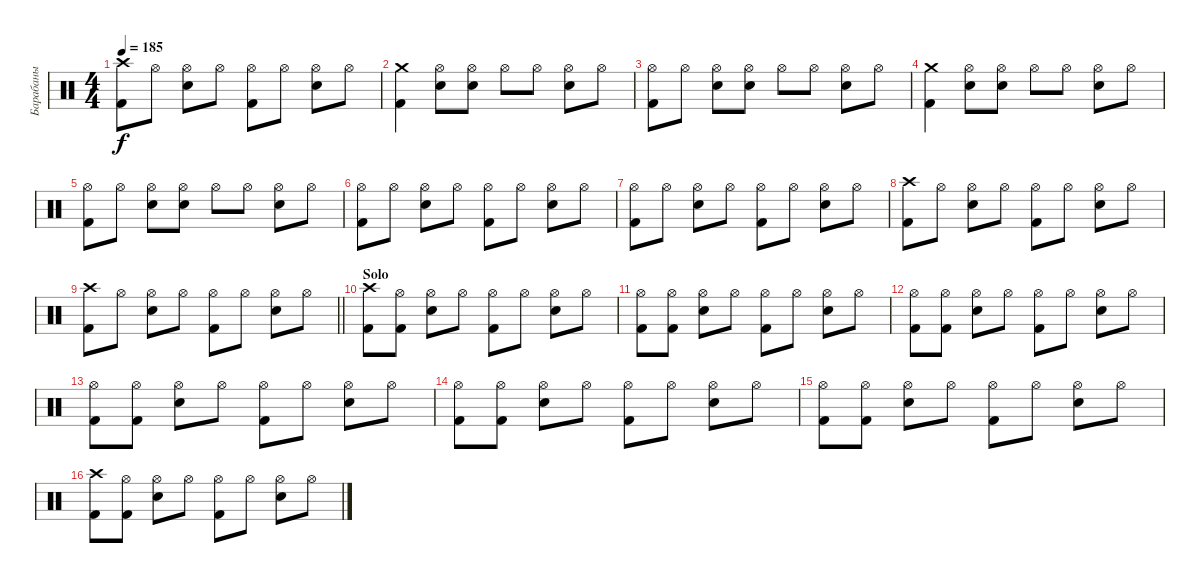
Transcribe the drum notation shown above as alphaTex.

\track ("Барабаны" "Барабаны") {instrument percussion}
\staff {score}
\articulation defaults
\ts (4 4)
\tempo 185
\clef neutral
\ks c
("Crash high (hit)" "Kick (hit) 2").8{dy f} "Hi-Hat (open)".8 ("Hi-Hat (open)" "Snare (hit) 2").8 "Hi-Hat (open)".8 ("Hi-Hat (open)" "Kick (hit) 2").8 "Hi-Hat (open)".8 ("Hi-Hat (open)" "Snare (hit) 2").8 "Hi-Hat (open)".8 |
("Crash medium (hit)" "Kick (hit) 2").4 ("Hi-Hat (open)" "Snare (hit) 2").8 ("Hi-Hat (open)" "Snare (hit) 2").8 "Hi-Hat (open)".8 "Hi-Hat (open)".8 ("Hi-Hat (open)" "Snare (hit) 2").8 "Hi-Hat (open)".8 |
("Hi-Hat (open)" "Kick (hit) 2").8 "Hi-Hat (open)".8 ("Hi-Hat (open)" "Snare (hit) 2").8 ("Hi-Hat (open)" "Snare (hit) 2").8 "Hi-Hat (open)".8 "Hi-Hat (open)".8 ("Hi-Hat (open)" "Snare (hit) 2").8 "Hi-Hat (open)".8 |
("Crash medium (hit)" "Kick (hit) 2").4 ("Hi-Hat (open)" "Snare (hit) 2").8 ("Hi-Hat (open)" "Snare (hit) 2").8 "Hi-Hat (open)".8 "Hi-Hat (open)".8 ("Hi-Hat (open)" "Snare (hit) 2").8 "Hi-Hat (open)".8 |
("Hi-Hat (open)" "Kick (hit) 2").8 "Hi-Hat (open)".8 ("Hi-Hat (open)" "Snare (hit) 2").8 ("Hi-Hat (open)" "Snare (hit) 2").8 "Hi-Hat (open)".8 "Hi-Hat (open)".8 ("Hi-Hat (open)" "Snare (hit) 2").8 "Hi-Hat (open)".8 |
("Hi-Hat (open)" "Kick (hit) 2").8 "Hi-Hat (open)".8 ("Hi-Hat (open)" "Snare (hit) 2").8 "Hi-Hat (open)".8 ("Hi-Hat (open)" "Kick (hit) 2").8 "Hi-Hat (open)".8 ("Hi-Hat (open)" "Snare (hit) 2").8 "Hi-Hat (open)".8 |
("Hi-Hat (open)" "Kick (hit) 2").8 "Hi-Hat (open)".8 ("Hi-Hat (open)" "Snare (hit) 2").8 "Hi-Hat (open)".8 ("Hi-Hat (open)" "Kick (hit) 2").8 "Hi-Hat (open)".8 ("Hi-Hat (open)" "Snare (hit) 2").8 "Hi-Hat (open)".8 |
("Crash high (hit)" "Kick (hit) 2").8 "Hi-Hat (open)".8 ("Hi-Hat (open)" "Snare (hit) 2").8 "Hi-Hat (open)".8 ("Hi-Hat (open)" "Kick (hit) 2").8 "Hi-Hat (open)".8 ("Hi-Hat (open)" "Snare (hit) 2").8 "Hi-Hat (open)".8 |
\barLineRight lightlight
("Crash high (hit)" "Kick (hit) 2").8 "Hi-Hat (open)".8 ("Hi-Hat (open)" "Snare (hit) 2").8 "Hi-Hat (open)".8 ("Hi-Hat (open)" "Kick (hit) 2").8 "Hi-Hat (open)".8 ("Hi-Hat (open)" "Snare (hit) 2").8 "Hi-Hat (open)".8 |
\section ("" "Solo")
("Crash high (hit)" "Kick (hit) 2").8 ("Hi-Hat (open)" "Kick (hit) 2").8 ("Hi-Hat (open)" "Snare (hit) 2").8 "Hi-Hat (open)".8 ("Hi-Hat (open)" "Kick (hit) 2").8 "Hi-Hat (open)".8 ("Hi-Hat (open)" "Snare (hit) 2").8 "Hi-Hat (open)".8 |
("Hi-Hat (open)" "Kick (hit) 2").8 ("Hi-Hat (open)" "Kick (hit) 2").8 ("Hi-Hat (open)" "Snare (hit) 2").8 "Hi-Hat (open)".8 ("Hi-Hat (open)" "Kick (hit) 2").8 "Hi-Hat (open)".8 ("Hi-Hat (open)" "Snare (hit) 2").8 "Hi-Hat (open)".8 |
("Hi-Hat (open)" "Kick (hit) 2").8 ("Hi-Hat (open)" "Kick (hit) 2").8 ("Hi-Hat (open)" "Snare (hit) 2").8 "Hi-Hat (open)".8 ("Hi-Hat (open)" "Kick (hit) 2").8 "Hi-Hat (open)".8 ("Hi-Hat (open)" "Snare (hit) 2").8 "Hi-Hat (open)".8 |
("Hi-Hat (open)" "Kick (hit) 2").8 ("Hi-Hat (open)" "Kick (hit) 2").8 ("Hi-Hat (open)" "Snare (hit) 2").8 "Hi-Hat (open)".8 ("Hi-Hat (open)" "Kick (hit) 2").8 "Hi-Hat (open)".8 ("Hi-Hat (open)" "Snare (hit) 2").8 "Hi-Hat (open)".8 |
("Hi-Hat (open)" "Kick (hit) 2").8 ("Hi-Hat (open)" "Kick (hit) 2").8 ("Hi-Hat (open)" "Snare (hit) 2").8 "Hi-Hat (open)".8 ("Hi-Hat (open)" "Kick (hit) 2").8 "Hi-Hat (open)".8 ("Hi-Hat (open)" "Snare (hit) 2").8 "Hi-Hat (open)".8 |
("Hi-Hat (open)" "Kick (hit) 2").8 ("Hi-Hat (open)" "Kick (hit) 2").8 ("Hi-Hat (open)" "Snare (hit) 2").8 "Hi-Hat (open)".8 ("Hi-Hat (open)" "Kick (hit) 2").8 "Hi-Hat (open)".8 ("Hi-Hat (open)" "Snare (hit) 2").8 "Hi-Hat (open)".8 |
("Crash high (hit)" "Kick (hit) 2").8 ("Hi-Hat (open)" "Kick (hit) 2").8 ("Hi-Hat (open)" "Snare (hit) 2").8 "Hi-Hat (open)".8 ("Hi-Hat (open)" "Kick (hit) 2").8 "Hi-Hat (open)".8 ("Hi-Hat (open)" "Snare (hit) 2").8 "Hi-Hat (open)".8
